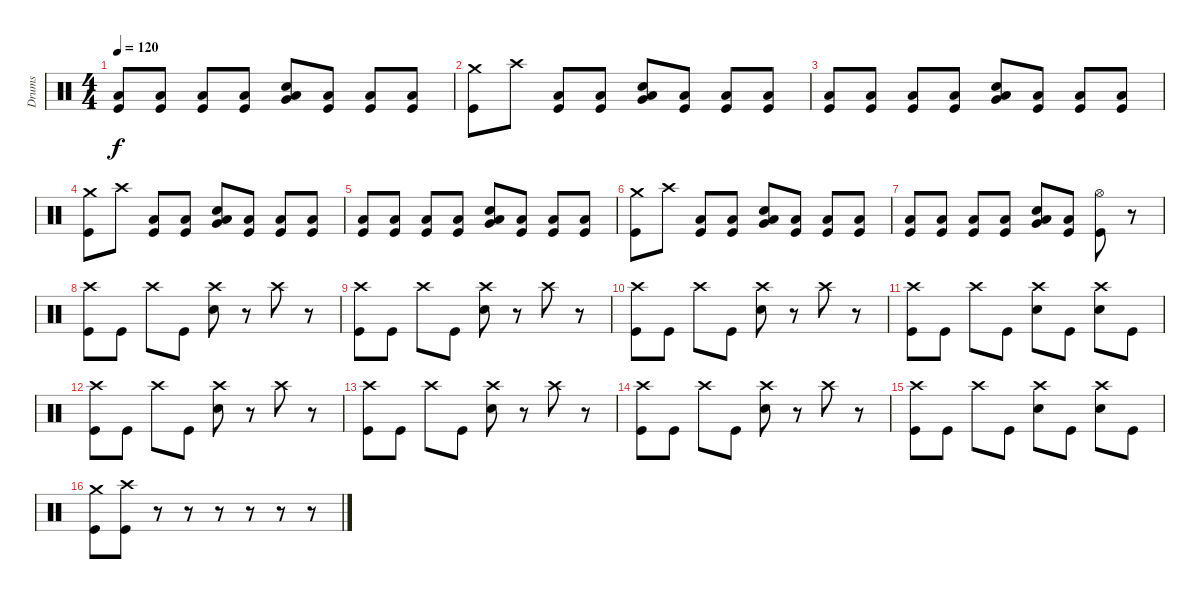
\track ("Drums" "Drums") {instrument percussion}
\staff {score}
\articulation defaults
\ts (4 4)
\tempo 120
\clef neutral
\ks c
("Low Floor Tom (hit)" "Kick (hit)").8{dy f} ("Low Floor Tom (hit)" "Kick (hit)").8 ("Low Floor Tom (hit)" "Kick (hit)").8 ("Low Floor Tom (hit)" "Kick (hit)").8 ("Low Floor Tom (hit)" "Very Low Tom (hit)" "Snare (hit) 2").8 ("Low Floor Tom (hit)" "Kick (hit)").8 ("Low Floor Tom (hit)" "Kick (hit)").8 ("Low Floor Tom (hit)" "Kick (hit)").8 |
("Crash medium (hit)" "Kick (hit)").8 "Crash high (hit)".8 ("Low Floor Tom (hit)" "Kick (hit)").8 ("Low Floor Tom (hit)" "Kick (hit)").8 ("Low Floor Tom (hit)" "Very Low Tom (hit)" "Snare (hit) 2").8 ("Low Floor Tom (hit)" "Kick (hit)").8 ("Low Floor Tom (hit)" "Kick (hit)").8 ("Low Floor Tom (hit)" "Kick (hit)").8 |
("Low Floor Tom (hit)" "Kick (hit)").8 ("Low Floor Tom (hit)" "Kick (hit)").8 ("Low Floor Tom (hit)" "Kick (hit)").8 ("Low Floor Tom (hit)" "Kick (hit)").8 ("Low Floor Tom (hit)" "Very Low Tom (hit)" "Snare (hit) 2").8 ("Low Floor Tom (hit)" "Kick (hit)").8 ("Low Floor Tom (hit)" "Kick (hit)").8 ("Low Floor Tom (hit)" "Kick (hit)").8 |
("Crash medium (hit)" "Kick (hit)").8 "Crash high (hit)".8 ("Low Floor Tom (hit)" "Kick (hit)").8 ("Low Floor Tom (hit)" "Kick (hit)").8 ("Low Floor Tom (hit)" "Very Low Tom (hit)" "Snare (hit) 2").8 ("Low Floor Tom (hit)" "Kick (hit)").8 ("Low Floor Tom (hit)" "Kick (hit)").8 ("Low Floor Tom (hit)" "Kick (hit)").8 |
("Low Floor Tom (hit)" "Kick (hit)").8 ("Low Floor Tom (hit)" "Kick (hit)").8 ("Low Floor Tom (hit)" "Kick (hit)").8 ("Low Floor Tom (hit)" "Kick (hit)").8 ("Low Floor Tom (hit)" "Very Low Tom (hit)" "Snare (hit) 2").8 ("Low Floor Tom (hit)" "Kick (hit)").8 ("Low Floor Tom (hit)" "Kick (hit)").8 ("Low Floor Tom (hit)" "Kick (hit)").8 |
("Crash medium (hit)" "Kick (hit)").8 "Crash high (hit)".8 ("Low Floor Tom (hit)" "Kick (hit)").8 ("Low Floor Tom (hit)" "Kick (hit)").8 ("Low Floor Tom (hit)" "Very Low Tom (hit)" "Snare (hit) 2").8 ("Low Floor Tom (hit)" "Kick (hit)").8 ("Low Floor Tom (hit)" "Kick (hit)").8 ("Low Floor Tom (hit)" "Kick (hit)").8 |
("Low Floor Tom (hit)" "Kick (hit)").8 ("Low Floor Tom (hit)" "Kick (hit)").8 ("Low Floor Tom (hit)" "Kick (hit)").8 ("Low Floor Tom (hit)" "Kick (hit)").8 ("Low Floor Tom (hit)" "Very Low Tom (hit)" "Snare (hit) 2").8 ("Low Floor Tom (hit)" "Kick (hit)").8 ("Hi-Hat (open)" "Kick (hit)").8 r.8 |
("Crash high (hit)" "Kick (hit)").8 "Kick (hit)".8 "Crash high (hit)".8 "Kick (hit)".8 ("Crash high (hit)" "Snare (hit) 2").8 r.8 "Crash high (hit)".8 r.8 |
("Crash high (hit)" "Kick (hit)").8 "Kick (hit)".8 "Crash high (hit)".8 "Kick (hit)".8 ("Crash high (hit)" "Snare (hit) 2").8 r.8 "Crash high (hit)".8 r.8 |
("Crash high (hit)" "Kick (hit)").8 "Kick (hit)".8 "Crash high (hit)".8 "Kick (hit)".8 ("Crash high (hit)" "Snare (hit) 2").8 r.8 "Crash high (hit)".8 r.8 |
("Crash high (hit)" "Kick (hit)").8 "Kick (hit)".8 "Crash high (hit)".8 "Kick (hit)".8 ("Crash high (hit)" "Snare (hit) 2").8 "Kick (hit)".8 ("Crash high (hit)" "Snare (hit) 2").8 "Kick (hit)".8 |
("Crash high (hit)" "Kick (hit)").8 "Kick (hit)".8 "Crash high (hit)".8 "Kick (hit)".8 ("Crash high (hit)" "Snare (hit) 2").8 r.8 "Crash high (hit)".8 r.8 |
("Crash high (hit)" "Kick (hit)").8 "Kick (hit)".8 "Crash high (hit)".8 "Kick (hit)".8 ("Crash high (hit)" "Snare (hit) 2").8 r.8 "Crash high (hit)".8 r.8 |
("Crash high (hit)" "Kick (hit)").8 "Kick (hit)".8 "Crash high (hit)".8 "Kick (hit)".8 ("Crash high (hit)" "Snare (hit) 2").8 r.8 "Crash high (hit)".8 r.8 |
("Crash high (hit)" "Kick (hit)").8 "Kick (hit)".8 "Crash high (hit)".8 "Kick (hit)".8 ("Crash high (hit)" "Snare (hit) 2").8 "Kick (hit)".8 ("Crash high (hit)" "Snare (hit) 2").8 "Kick (hit)".8 |
("Crash medium (hit)" "Kick (hit)").8 ("Crash high (hit)" "Kick (hit)").8 r.8 r.8 r.8 r.8 r.8 r.8
